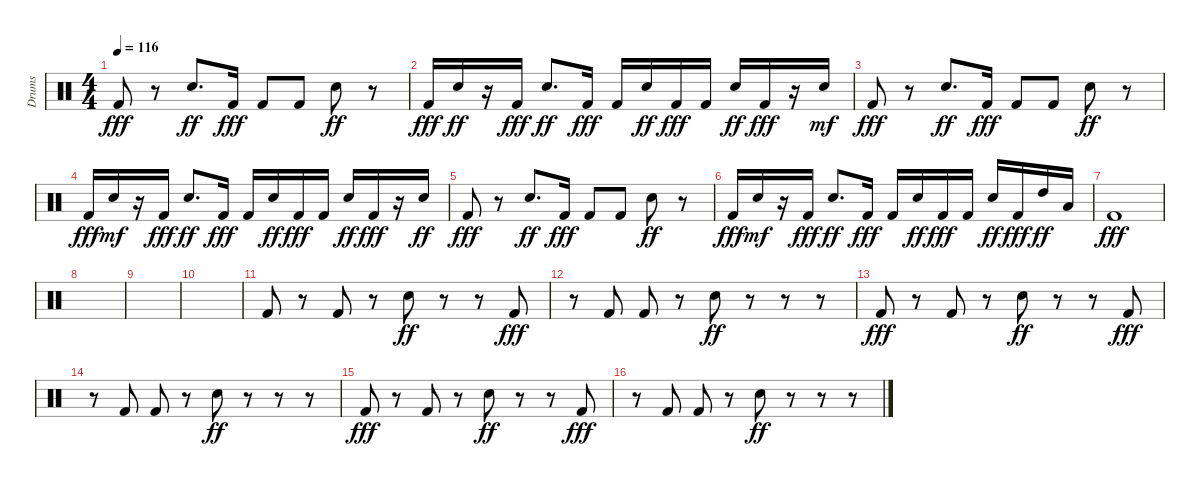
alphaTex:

\track ("Drums" "Drums") {instrument percussion}
\staff {score}
\articulation defaults
\ts (4 4)
\tempo 116
\clef neutral
\ks c "Kick (hit) 2".8{dy fff}
r.8 "Snare (hit) 2".8{d dy ff} "Kick (hit) 2".16{dy fff} "Kick (hit) 2".8 "Kick (hit) 2".8 "Snare (hit) 2".8{dy ff} r.8 |
"Kick (hit) 2".16{dy fff} "Snare (hit) 2".16{dy ff} r.16 "Kick (hit) 2".16{dy fff} "Snare (hit) 2".8{d dy ff} "Kick (hit) 2".16{dy fff} "Kick (hit) 2".16 "Snare (hit) 2".16{dy ff} "Kick (hit) 2".16{dy fff} "Kick (hit) 2".16 "Snare (hit) 2".16{dy ff} "Kick (hit) 2".16{dy fff} r.16 "Snare (hit) 2".16{dy mf} |
"Kick (hit) 2".8{dy fff} r.8 "Snare (hit) 2".8{d dy ff} "Kick (hit) 2".16{dy fff} "Kick (hit) 2".8 "Kick (hit) 2".8 "Snare (hit) 2".8{dy ff} r.8 |
"Kick (hit) 2".16{dy fff} "Snare (hit) 2".16{dy mf} r.16 "Kick (hit) 2".16{dy fff} "Snare (hit) 2".8{d dy ff} "Kick (hit) 2".16{dy fff} "Kick (hit) 2".16 "Snare (hit) 2".16{dy ff} "Kick (hit) 2".16{dy fff} "Kick (hit) 2".16 "Snare (hit) 2".16{dy ff} "Kick (hit) 2".16{dy fff} r.16 "Snare (hit) 2".16{dy ff} |
"Kick (hit) 2".8{dy fff} r.8 "Snare (hit) 2".8{d dy ff} "Kick (hit) 2".16{dy fff} "Kick (hit) 2".8 "Kick (hit) 2".8 "Snare (hit) 2".8{dy ff} r.8 |
"Kick (hit) 2".16{dy fff} "Snare (hit) 2".16{dy mf} r.16 "Kick (hit) 2".16{dy fff} "Snare (hit) 2".8{d dy ff} "Kick (hit) 2".16{dy fff} "Kick (hit) 2".16 "Snare (hit) 2".16{dy ff} "Kick (hit) 2".16{dy fff} "Kick (hit) 2".16 "Snare (hit) 2".16{dy ff} "Kick (hit) 2".16{dy fff} "High Tom (hit)".16{dy ff} "Low Tom (hit)".16 |
"Kick (hit) 2".1{dy fff} |
|
|
|
"Kick (hit) 2".8 r.8 "Kick (hit) 2".8 r.8 "Snare (hit) 2".8{dy ff} r.8 r.8 "Kick (hit) 2".8{dy fff} |
r.8 "Kick (hit) 2".8 "Kick (hit) 2".8 r.8 "Snare (hit) 2".8{dy ff} r.8 r.8 r.8 |
"Kick (hit) 2".8{dy fff} r.8 "Kick (hit) 2".8 r.8 "Snare (hit) 2".8{dy ff} r.8 r.8 "Kick (hit) 2".8{dy fff} |
r.8 "Kick (hit) 2".8 "Kick (hit) 2".8 r.8 "Snare (hit) 2".8{dy ff} r.8 r.8 r.8 |
"Kick (hit) 2".8{dy fff} r.8 "Kick (hit) 2".8 r.8 "Snare (hit) 2".8{dy ff} r.8 r.8 "Kick (hit) 2".8{dy fff} |
r.8 "Kick (hit) 2".8 "Kick (hit) 2".8 r.8 "Snare (hit) 2".8{dy ff} r.8 r.8 r.8
